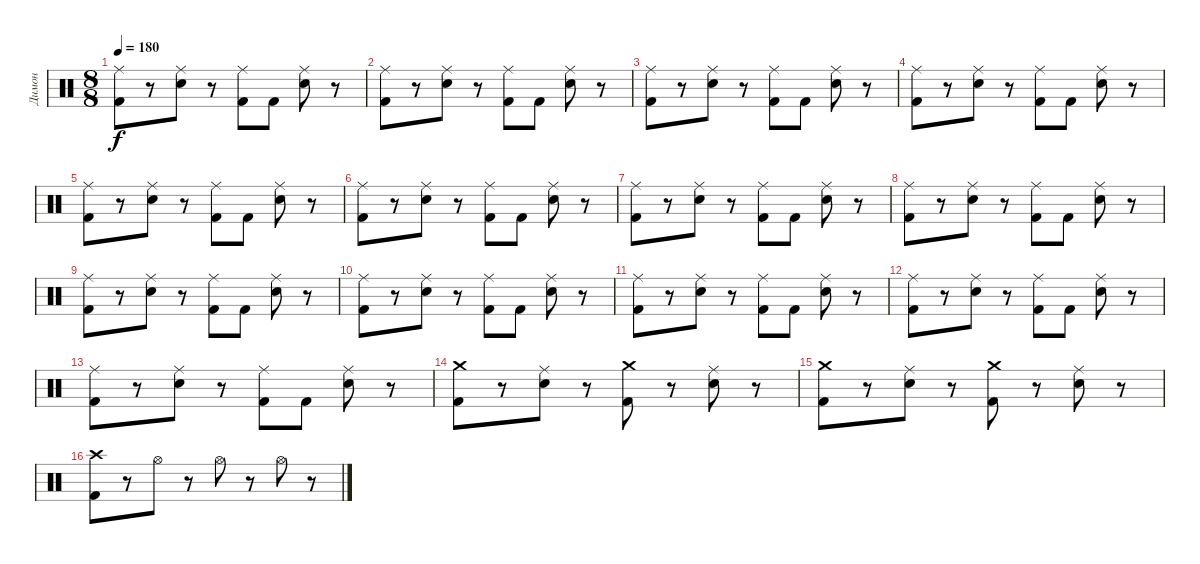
\track ("Димон" "Димон") {instrument percussion}
\staff {score}
\articulation defaults
\ts (8 8)
\tempo 180
\clef neutral
\ks c
("Kick (hit) 2" "Ride (middle)").8{dy f} r.8 ("Electric Snare (hit)" "Ride (middle)").8 r.8 ("Kick (hit) 2" "Ride (middle)").8 "Kick (hit) 2".8 ("Electric Snare (hit)" "Ride (middle)").8 r.8 |
("Kick (hit) 2" "Ride (middle)").8 r.8 ("Electric Snare (hit)" "Ride (middle)").8 r.8 ("Kick (hit) 2" "Ride (middle)").8 "Kick (hit) 2".8 ("Electric Snare (hit)" "Ride (middle)").8 r.8 |
("Kick (hit) 2" "Ride (middle)").8 r.8 ("Electric Snare (hit)" "Ride (middle)").8 r.8 ("Kick (hit) 2" "Ride (middle)").8 "Kick (hit) 2".8 ("Electric Snare (hit)" "Ride (middle)").8 r.8 |
("Kick (hit) 2" "Ride (middle)").8 r.8 ("Electric Snare (hit)" "Ride (middle)").8 r.8 ("Kick (hit) 2" "Ride (middle)").8 "Kick (hit) 2".8 ("Electric Snare (hit)" "Ride (middle)").8 r.8 |
("Kick (hit) 2" "Ride (middle)").8 r.8 ("Electric Snare (hit)" "Ride (middle)").8 r.8 ("Kick (hit) 2" "Ride (middle)").8 "Kick (hit) 2".8 ("Electric Snare (hit)" "Ride (middle)").8 r.8 |
("Kick (hit) 2" "Ride (middle)").8 r.8 ("Electric Snare (hit)" "Ride (middle)").8 r.8 ("Kick (hit) 2" "Ride (middle)").8 "Kick (hit) 2".8 ("Electric Snare (hit)" "Ride (middle)").8 r.8 |
("Kick (hit) 2" "Ride (middle)").8 r.8 ("Electric Snare (hit)" "Ride (middle)").8 r.8 ("Kick (hit) 2" "Ride (middle)").8 "Kick (hit) 2".8 ("Electric Snare (hit)" "Ride (middle)").8 r.8 |
("Kick (hit) 2" "Ride (middle)").8 r.8 ("Electric Snare (hit)" "Ride (middle)").8 r.8 ("Kick (hit) 2" "Ride (middle)").8 "Kick (hit) 2".8 ("Electric Snare (hit)" "Ride (middle)").8 r.8 |
("Kick (hit) 2" "Ride (middle)").8 r.8 ("Electric Snare (hit)" "Ride (middle)").8 r.8 ("Kick (hit) 2" "Ride (middle)").8 "Kick (hit) 2".8 ("Electric Snare (hit)" "Ride (middle)").8 r.8 |
("Kick (hit) 2" "Ride (middle)").8 r.8 ("Electric Snare (hit)" "Ride (middle)").8 r.8 ("Kick (hit) 2" "Ride (middle)").8 "Kick (hit) 2".8 ("Electric Snare (hit)" "Ride (middle)").8 r.8 |
("Kick (hit) 2" "Ride (middle)").8 r.8 ("Electric Snare (hit)" "Ride (middle)").8 r.8 ("Kick (hit) 2" "Ride (middle)").8 "Kick (hit) 2".8 ("Electric Snare (hit)" "Ride (middle)").8 r.8 |
("Kick (hit) 2" "Ride (middle)").8 r.8 ("Electric Snare (hit)" "Ride (middle)").8 r.8 ("Kick (hit) 2" "Ride (middle)").8 "Kick (hit) 2".8 ("Electric Snare (hit)" "Ride (middle)").8 r.8 |
("Kick (hit) 2" "Ride (middle)").8 r.8 ("Electric Snare (hit)" "Ride (middle)").8 r.8 ("Kick (hit) 2" "Ride (middle)").8 "Kick (hit) 2".8 ("Electric Snare (hit)" "Ride (middle)").8 r.8 |
("Kick (hit) 2" "Crash medium (hit)").8 r.8 ("Electric Snare (hit)" "Ride (middle)").8 r.8 ("Kick (hit) 2" "Crash medium (hit)").8 r.8 ("Electric Snare (hit)" "Ride (middle)").8 r.8 |
("Kick (hit) 2" "Crash medium (hit)").8 r.8 ("Electric Snare (hit)" "Ride (middle)").8 r.8 ("Kick (hit) 2" "Crash medium (hit)").8 r.8 ("Electric Snare (hit)" "Ride (middle)").8 r.8 |
("Kick (hit) 2" "Crash high (hit)").8 r.8 "Hi-Hat (open)".8 r.8 "Hi-Hat (open)".8 r.8 "Hi-Hat (open)".8 r.8
